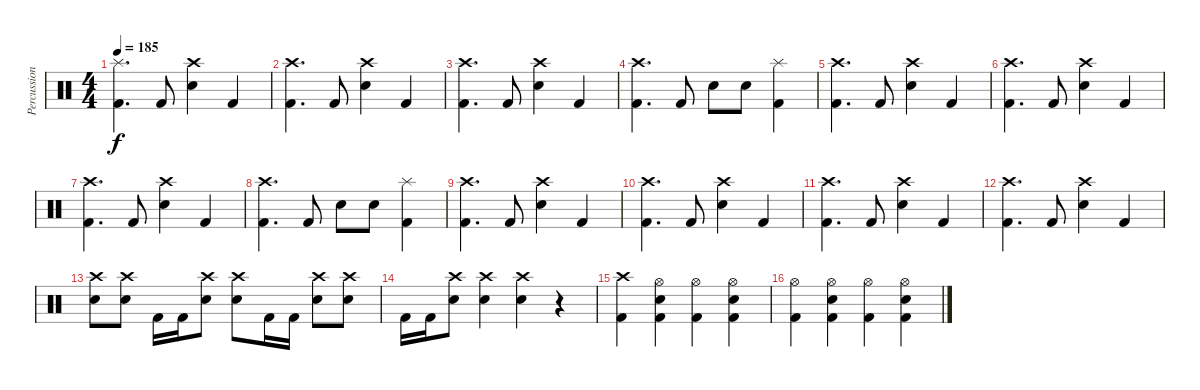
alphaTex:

\track ("Percussion" "Percussion") {instrument percussion}
\staff {score}
\articulation defaults
\ts (4 4)
\tempo 185
\clef neutral
\ks c
("Splash (hit)" "Kick (hit) 2").4{d dy f} "Kick (hit) 2".8 ("Crash high (hit)" "Snare (hit) 2").4 "Kick (hit) 2".4 |
("Crash high (hit)" "Kick (hit) 2").4{d} "Kick (hit) 2".8 ("Crash high (hit)" "Snare (hit) 2").4 "Kick (hit) 2".4 |
("Crash high (hit)" "Kick (hit) 2").4{d} "Kick (hit) 2".8 ("Crash high (hit)" "Snare (hit) 2").4 "Kick (hit) 2".4 |
("Crash high (hit)" "Kick (hit) 2").4{d} "Kick (hit) 2".8 "Snare (hit) 2".8 "Snare (hit) 2".8 ("Splash (hit)" "Kick (hit) 2").4 |
("Crash high (hit)" "Kick (hit) 2").4{d} "Kick (hit) 2".8 ("Crash high (hit)" "Snare (hit) 2").4 "Kick (hit) 2".4 |
("Crash high (hit)" "Kick (hit) 2").4{d} "Kick (hit) 2".8 ("Crash high (hit)" "Snare (hit) 2").4 "Kick (hit) 2".4 |
("Crash high (hit)" "Kick (hit) 2").4{d} "Kick (hit) 2".8 ("Crash high (hit)" "Snare (hit) 2").4 "Kick (hit) 2".4 |
("Crash high (hit)" "Kick (hit) 2").4{d} "Kick (hit) 2".8 "Snare (hit) 2".8 "Snare (hit) 2".8 ("Splash (hit)" "Kick (hit) 2").4 |
("Crash high (hit)" "Kick (hit) 2").4{d} "Kick (hit) 2".8 ("Crash high (hit)" "Snare (hit) 2").4 "Kick (hit) 2".4 |
("Crash high (hit)" "Kick (hit) 2").4{d} "Kick (hit) 2".8 ("Crash high (hit)" "Snare (hit) 2").4 "Kick (hit) 2".4 |
("Crash high (hit)" "Kick (hit) 2").4{d} "Kick (hit) 2".8 ("Crash high (hit)" "Snare (hit) 2").4 "Kick (hit) 2".4 |
("Crash high (hit)" "Kick (hit) 2").4{d} "Kick (hit) 2".8 ("Crash high (hit)" "Snare (hit) 2").4 "Kick (hit) 2".4 |
("Crash high (hit)" "Snare (hit) 2").8 ("Crash high (hit)" "Snare (hit) 2").8 "Kick (hit) 2".16 "Kick (hit) 2".16 ("Crash high (hit)" "Snare (hit) 2").8 ("Crash high (hit)" "Snare (hit) 2").8 "Kick (hit) 2".16 "Kick (hit) 2".16 ("Crash high (hit)" "Snare (hit) 2").8 ("Crash high (hit)" "Snare (hit) 2").8 |
"Kick (hit) 2".16 "Kick (hit) 2".16 ("Crash high (hit)" "Snare (hit) 2").8 ("Crash high (hit)" "Snare (hit) 2").4 ("Crash high (hit)" "Snare (hit) 2").4 r.4 |
("Crash high (hit)" "Kick (hit) 2").4 ("Hi-Hat (open)" "Snare (hit) 2" "Kick (hit) 2").4 ("Hi-Hat (open)" "Kick (hit) 2").4 ("Hi-Hat (open)" "Snare (hit) 2" "Kick (hit) 2").4 |
("Hi-Hat (open)" "Kick (hit) 2").4 ("Hi-Hat (open)" "Snare (hit) 2" "Kick (hit) 2").4 ("Hi-Hat (open)" "Kick (hit) 2").4 ("Hi-Hat (open)" "Snare (hit) 2" "Kick (hit) 2").4
